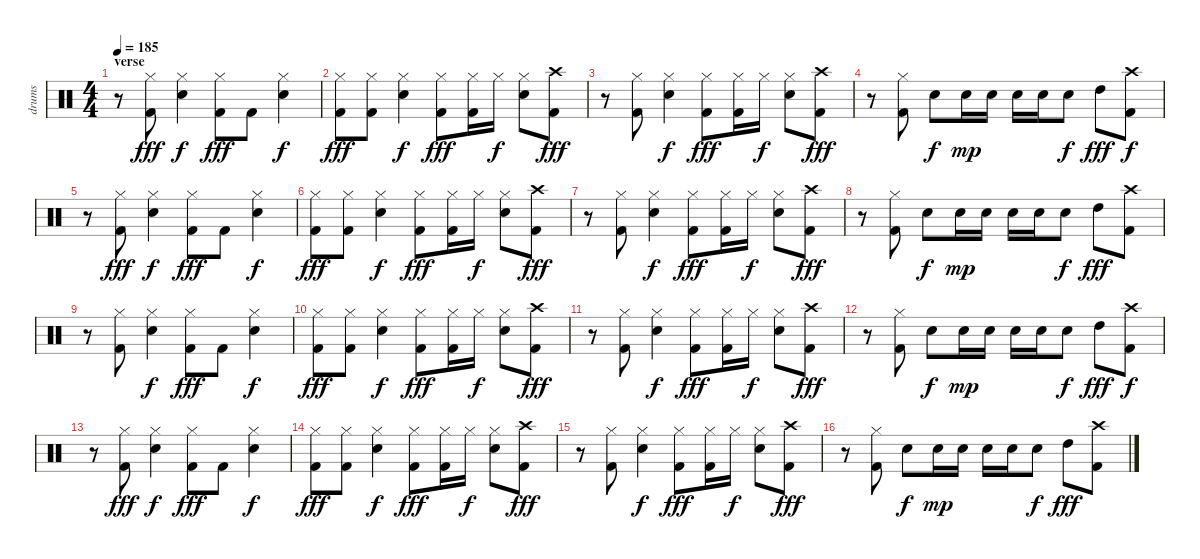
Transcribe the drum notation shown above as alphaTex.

\track ("drums" "drums") {instrument percussion}
\staff {score}
\articulation defaults
\ts (4 4)
\section ("" "verse")
\tempo 185
\clef neutral
\ks c
r.8{dy fff} ("Hi-Hat (closed)" "Kick (hit) 2").8 ("Hi-Hat (closed)" "Snare (hit) 2").4{dy f} ("Hi-Hat (closed)" "Kick (hit) 2").8{dy fff} "Kick (hit) 2".8 ("Hi-Hat (closed)" "Snare (hit) 2").4{dy f} |
("Hi-Hat (closed)" "Kick (hit) 2").8{dy fff} ("Hi-Hat (closed)" "Kick (hit) 2").8 ("Hi-Hat (closed)" "Snare (hit) 2").4{dy f} ("Hi-Hat (closed)" "Kick (hit) 2").8{dy fff} ("Hi-Hat (closed)" "Kick (hit) 2").16 "Hi-Hat (closed)".16{dy f} ("Hi-Hat (closed)" "Snare (hit) 2").8 ("Crash high (hit)" "Kick (hit) 2").8{dy fff} |
r.8 ("Hi-Hat (closed)" "Kick (hit) 2").8 ("Hi-Hat (closed)" "Snare (hit) 2").4{dy f} ("Hi-Hat (closed)" "Kick (hit) 2").8{dy fff} ("Hi-Hat (closed)" "Kick (hit) 2").16 "Hi-Hat (closed)".16{dy f} ("Hi-Hat (closed)" "Snare (hit) 2").8 ("Crash high (hit)" "Kick (hit) 2").8{dy fff} |
r.8 ("Hi-Hat (closed)" "Kick (hit) 2").8 "Snare (hit) 2".8{dy f} "Snare (hit) 2".16{dy mp} "Snare (hit) 2".16 "Snare (hit) 2".16 "Snare (hit) 2".16 "Snare (hit) 2".8{dy f} "High Tom (hit)".8{dy fff} ("Crash high (hit)" "Kick (hit) 2").8{dy f} |
r.8 ("Hi-Hat (closed)" "Kick (hit) 2").8{dy fff} ("Hi-Hat (closed)" "Snare (hit) 2").4{dy f} ("Hi-Hat (closed)" "Kick (hit) 2").8{dy fff} "Kick (hit) 2".8 ("Hi-Hat (closed)" "Snare (hit) 2").4{dy f} |
("Hi-Hat (closed)" "Kick (hit) 2").8{dy fff} ("Hi-Hat (closed)" "Kick (hit) 2").8 ("Hi-Hat (closed)" "Snare (hit) 2").4{dy f} ("Hi-Hat (closed)" "Kick (hit) 2").8{dy fff} ("Hi-Hat (closed)" "Kick (hit) 2").16 "Hi-Hat (closed)".16{dy f} ("Hi-Hat (closed)" "Snare (hit) 2").8 ("Crash high (hit)" "Kick (hit) 2").8{dy fff} |
r.8 ("Hi-Hat (closed)" "Kick (hit) 2").8 ("Hi-Hat (closed)" "Snare (hit) 2").4{dy f} ("Hi-Hat (closed)" "Kick (hit) 2").8{dy fff} ("Hi-Hat (closed)" "Kick (hit) 2").16 "Hi-Hat (closed)".16{dy f} ("Hi-Hat (closed)" "Snare (hit) 2").8 ("Crash high (hit)" "Kick (hit) 2").8{dy fff} |
r.8 ("Hi-Hat (closed)" "Kick (hit) 2").8 "Snare (hit) 2".8{dy f} "Snare (hit) 2".16{dy mp} "Snare (hit) 2".16 "Snare (hit) 2".16 "Snare (hit) 2".16 "Snare (hit) 2".8{dy f} "High Tom (hit)".8{dy fff} ("Crash high (hit)" "Kick (hit) 2").8 |
r.8 ("Hi-Hat (closed)" "Kick (hit) 2").8 ("Hi-Hat (closed)" "Snare (hit) 2").4{dy f} ("Hi-Hat (closed)" "Kick (hit) 2").8{dy fff} "Kick (hit) 2".8 ("Hi-Hat (closed)" "Snare (hit) 2").4{dy f} |
("Hi-Hat (closed)" "Kick (hit) 2").8{dy fff} ("Hi-Hat (closed)" "Kick (hit) 2").8 ("Hi-Hat (closed)" "Snare (hit) 2").4{dy f} ("Hi-Hat (closed)" "Kick (hit) 2").8{dy fff} ("Hi-Hat (closed)" "Kick (hit) 2").16 "Hi-Hat (closed)".16{dy f} ("Hi-Hat (closed)" "Snare (hit) 2").8 ("Crash high (hit)" "Kick (hit) 2").8{dy fff} |
r.8 ("Hi-Hat (closed)" "Kick (hit) 2").8 ("Hi-Hat (closed)" "Snare (hit) 2").4{dy f} ("Hi-Hat (closed)" "Kick (hit) 2").8{dy fff} ("Hi-Hat (closed)" "Kick (hit) 2").16 "Hi-Hat (closed)".16{dy f} ("Hi-Hat (closed)" "Snare (hit) 2").8 ("Crash high (hit)" "Kick (hit) 2").8{dy fff} |
r.8 ("Hi-Hat (closed)" "Kick (hit) 2").8 "Snare (hit) 2".8{dy f} "Snare (hit) 2".16{dy mp} "Snare (hit) 2".16 "Snare (hit) 2".16 "Snare (hit) 2".16 "Snare (hit) 2".8{dy f} "High Tom (hit)".8{dy fff} ("Crash high (hit)" "Kick (hit) 2").8{dy f} |
r.8 ("Hi-Hat (closed)" "Kick (hit) 2").8{dy fff} ("Hi-Hat (closed)" "Snare (hit) 2").4{dy f} ("Hi-Hat (closed)" "Kick (hit) 2").8{dy fff} "Kick (hit) 2".8 ("Hi-Hat (closed)" "Snare (hit) 2").4{dy f} |
("Hi-Hat (closed)" "Kick (hit) 2").8{dy fff} ("Hi-Hat (closed)" "Kick (hit) 2").8 ("Hi-Hat (closed)" "Snare (hit) 2").4{dy f} ("Hi-Hat (closed)" "Kick (hit) 2").8{dy fff} ("Hi-Hat (closed)" "Kick (hit) 2").16 "Hi-Hat (closed)".16{dy f} ("Hi-Hat (closed)" "Snare (hit) 2").8 ("Crash high (hit)" "Kick (hit) 2").8{dy fff} |
r.8 ("Hi-Hat (closed)" "Kick (hit) 2").8 ("Hi-Hat (closed)" "Snare (hit) 2").4{dy f} ("Hi-Hat (closed)" "Kick (hit) 2").8{dy fff} ("Hi-Hat (closed)" "Kick (hit) 2").16 "Hi-Hat (closed)".16{dy f} ("Hi-Hat (closed)" "Snare (hit) 2").8 ("Crash high (hit)" "Kick (hit) 2").8{dy fff} |
r.8 ("Hi-Hat (closed)" "Kick (hit) 2").8 "Snare (hit) 2".8{dy f} "Snare (hit) 2".16{dy mp} "Snare (hit) 2".16 "Snare (hit) 2".16 "Snare (hit) 2".16 "Snare (hit) 2".8{dy f} "High Tom (hit)".8{dy fff} ("Crash high (hit)" "Kick (hit) 2").8
